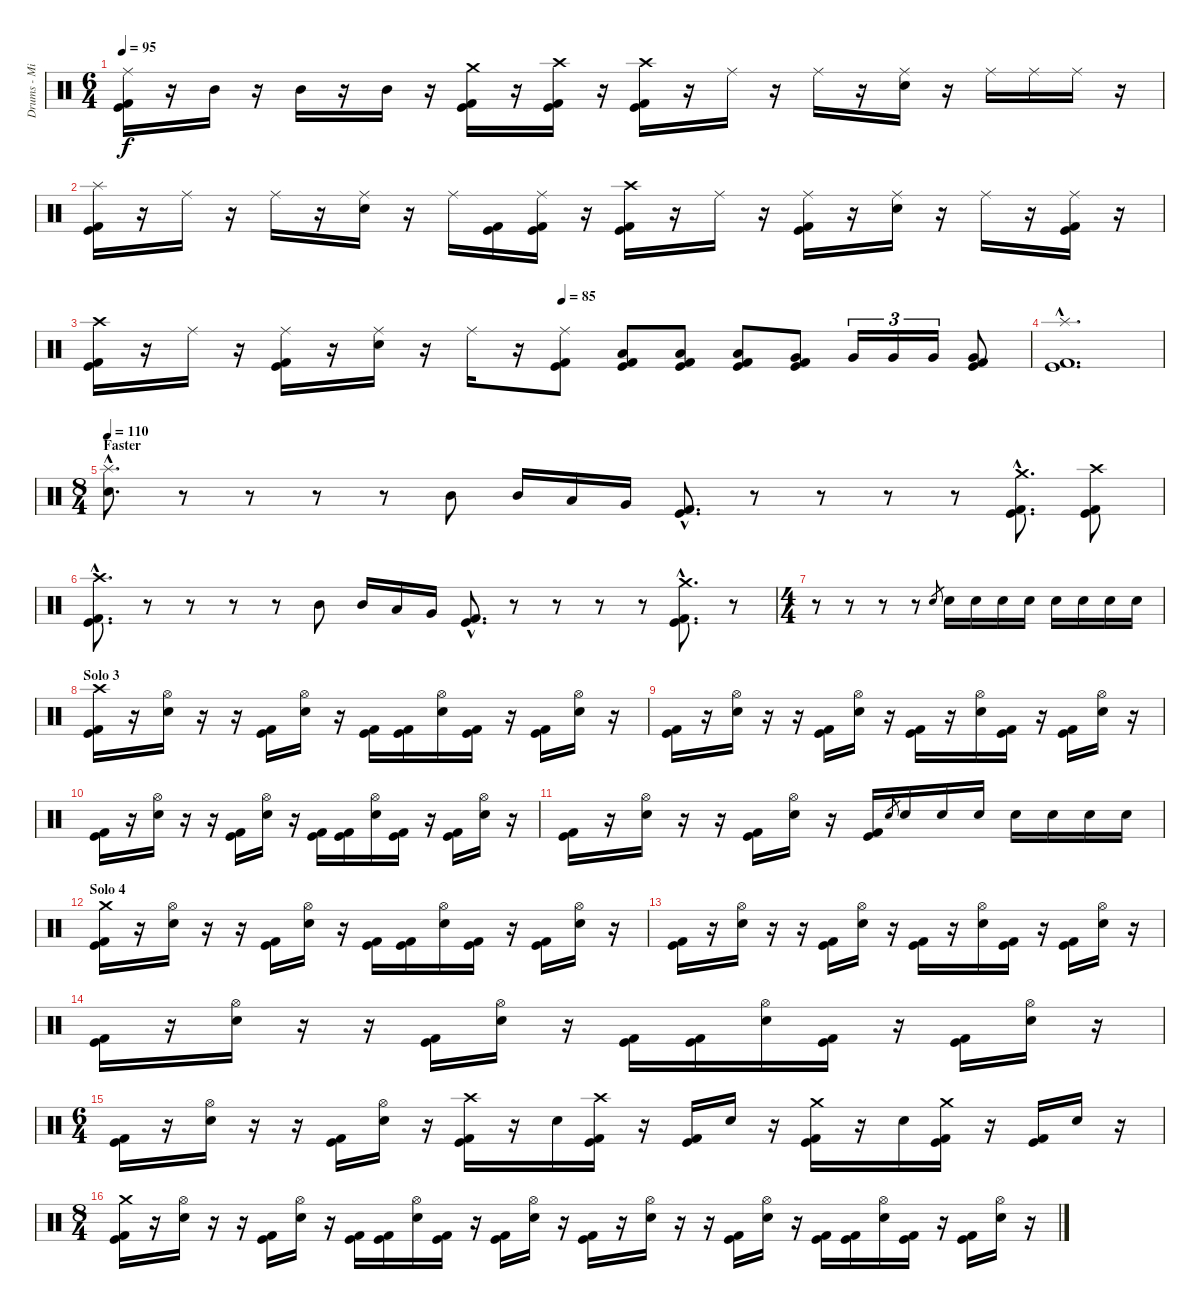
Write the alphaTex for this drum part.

\track ("Drums - Mikkey Dee" "Drums - Mi") {instrument percussion}
\staff {score}
\articulation defaults
\ts (6 4)
\tempo 95
\clef neutral
\ks c
("Ride (middle)" "Kick (hit)" "Kick (hit) 2").16{dy f} r.16 "Mid Tom (hit)".16 r.16 "Mid Tom (hit)".16 r.16 "Mid Tom (hit)".16 r.16 ("Crash medium (hit)" "Kick (hit)" "Kick (hit) 2").16 r.16 ("Crash high (hit)" "Kick (hit)" "Kick (hit) 2").16 r.16 ("Crash high (hit)" "Kick (hit)" "Kick (hit) 2").16 r.16 "Ride (middle)".16 r.16 "Ride (middle)".16 r.16 ("Ride (middle)" "Snare (hit) 2").16 r.16 "Ride (middle)".16 "Ride (middle)".16 "Ride (middle)".16 r.16 |
("Splash (hit)" "Kick (hit)" "Kick (hit) 2").16 r.16 "Ride (middle)".16 r.16 "Ride (middle)".16 r.16 ("Ride (middle)" "Snare (hit) 2").16 r.16 "Ride (middle)".16 ("Kick (hit)" "Kick (hit) 2").16 ("Ride (middle)" "Kick (hit)" "Kick (hit) 2").16 r.16 ("Crash high (hit)" "Kick (hit)" "Kick (hit) 2").16 r.16 "Ride (middle)".16 r.16 ("Ride (middle)" "Kick (hit)" "Kick (hit) 2").16 r.16 ("Ride (middle)" "Snare (hit) 2").16 r.16 "Ride (middle)".16 r.16 ("Ride (middle)" "Kick (hit)" "Kick (hit) 2").16 r.16 |
\tempo (85 0.5)
("Crash high (hit)" "Kick (hit)" "Kick (hit) 2").16 r.16 "Ride (middle)".16 r.16 ("Ride (middle)" "Kick (hit)" "Kick (hit) 2").16 r.16 ("Ride (middle)" "Snare (hit) 2").16 r.16 "Ride (middle)".16 r.16 ("Ride (middle)" "Kick (hit)" "Kick (hit) 2").8 ("Low Tom (hit)" "Kick (hit)" "Kick (hit) 2").8 ("Low Tom (hit)" "Kick (hit)" "Kick (hit) 2").8 ("Low Tom (hit)" "Kick (hit)" "Kick (hit) 2").8 ("Very Low Tom (hit)" "Kick (hit)" "Kick (hit) 2").8 "Very Low Tom (hit)".16{tu (3 2)} "Very Low Tom (hit)".16{tu (3 2)} "Very Low Tom (hit)".16{tu (3 2)} ("Very Low Tom (hit)" "Kick (hit)" "Kick (hit) 2").8 |
("Splash (hit)"{hac} "Kick (hit)"{hac} "Kick (hit) 2"{hac}).1{d} |
\ts (8 4)
\section ("" "Faster")
\tempo 110
("Splash (hit)"{hac} "Snare (hit) 2"{hac}).8{d} r.8 r.8 r.8 r.8 "Mid Tom (hit)".8 "Mid Tom (hit)".16 "Low Tom (hit)".16 "Very Low Tom (hit)".16 ("Kick (hit)"{hac} "Kick (hit) 2"{hac}).8{d} r.8 r.8 r.8 r.8 ("Crash medium (hit)"{hac} "Kick (hit)"{hac} "Kick (hit) 2"{hac}).8{d} ("Crash high (hit)" "Kick (hit)" "Kick (hit) 2").8 |
("Crash high (hit)"{hac} "Kick (hit)"{hac} "Kick (hit) 2"{hac}).8{d} r.8 r.8 r.8 r.8 "Mid Tom (hit)".8 "Mid Tom (hit)".16 "Low Tom (hit)".16 "Very Low Tom (hit)".16 ("Kick (hit)"{hac} "Kick (hit) 2"{hac}).8{d} r.8 r.8 r.8 r.8 ("Crash medium (hit)"{hac} "Kick (hit)"{hac} "Kick (hit) 2"{hac}).8{d} r.8 |
\ts (4 4)
r.8 r.8 r.8 r.8 "Snare (hit) 2".8{gr} "Snare (hit) 2".16 "Snare (hit) 2".16 "Snare (hit) 2".16 "Snare (hit) 2".16 "Snare (hit) 2".16 "Snare (hit) 2".16 "Snare (hit) 2".16 "Snare (hit) 2".16 |
\section ("" "Solo 3")
("Crash high (hit)" "Kick (hit)" "Kick (hit) 2").16 r.16 ("Hi-Hat (open)" "Snare (hit) 2").16 r.16 r.16 ("Kick (hit)" "Kick (hit) 2").16 ("Hi-Hat (open)" "Snare (hit) 2").16 r.16 ("Kick (hit)" "Kick (hit) 2").16 ("Kick (hit)" "Kick (hit) 2").16 ("Hi-Hat (open)" "Snare (hit) 2").16 ("Kick (hit)" "Kick (hit) 2").16 r.16 ("Kick (hit)" "Kick (hit) 2").16 ("Hi-Hat (open)" "Snare (hit) 2").16 r.16 |
("Kick (hit)" "Kick (hit) 2").16 r.16 ("Hi-Hat (open)" "Snare (hit) 2").16 r.16 r.16 ("Kick (hit)" "Kick (hit) 2").16 ("Hi-Hat (open)" "Snare (hit) 2").16 r.16 ("Kick (hit)" "Kick (hit) 2").16 r.16 ("Hi-Hat (open)" "Snare (hit) 2").16 ("Kick (hit)" "Kick (hit) 2").16 r.16 ("Kick (hit)" "Kick (hit) 2").16 ("Hi-Hat (open)" "Snare (hit) 2").16 r.16 |
("Kick (hit)" "Kick (hit) 2").16 r.16 ("Hi-Hat (open)" "Snare (hit) 2").16 r.16 r.16 ("Kick (hit)" "Kick (hit) 2").16 ("Hi-Hat (open)" "Snare (hit) 2").16 r.16 ("Kick (hit)" "Kick (hit) 2").16 ("Kick (hit)" "Kick (hit) 2").16 ("Hi-Hat (open)" "Snare (hit) 2").16 ("Kick (hit)" "Kick (hit) 2").16 r.16 ("Kick (hit)" "Kick (hit) 2").16 ("Hi-Hat (open)" "Snare (hit) 2").16 r.16 |
("Kick (hit)" "Kick (hit) 2").16 r.16 ("Hi-Hat (open)" "Snare (hit) 2").16 r.16 r.16 ("Kick (hit)" "Kick (hit) 2").16 ("Hi-Hat (open)" "Snare (hit) 2").16 r.16 ("Kick (hit)" "Kick (hit) 2").16 "Snare (hit) 2".8{gr} "Snare (hit) 2".16 "Snare (hit) 2".16 "Snare (hit) 2".16 "Snare (hit) 2".16 "Snare (hit) 2".16 "Snare (hit) 2".16 "Snare (hit) 2".16 |
\section ("" "Solo 4")
("Crash medium (hit)" "Kick (hit)" "Kick (hit) 2").16 r.16 ("Hi-Hat (open)" "Snare (hit) 2").16 r.16 r.16 ("Kick (hit)" "Kick (hit) 2").16 ("Hi-Hat (open)" "Snare (hit) 2").16 r.16 ("Kick (hit)" "Kick (hit) 2").16 ("Kick (hit)" "Kick (hit) 2").16 ("Hi-Hat (open)" "Snare (hit) 2").16 ("Kick (hit)" "Kick (hit) 2").16 r.16 ("Kick (hit)" "Kick (hit) 2").16 ("Hi-Hat (open)" "Snare (hit) 2").16 r.16 |
("Kick (hit)" "Kick (hit) 2").16 r.16 ("Hi-Hat (open)" "Snare (hit) 2").16 r.16 r.16 ("Kick (hit)" "Kick (hit) 2").16 ("Hi-Hat (open)" "Snare (hit) 2").16 r.16 ("Kick (hit)" "Kick (hit) 2").16 r.16 ("Hi-Hat (open)" "Snare (hit) 2").16 ("Kick (hit)" "Kick (hit) 2").16 r.16 ("Kick (hit)" "Kick (hit) 2").16 ("Hi-Hat (open)" "Snare (hit) 2").16 r.16 |
("Kick (hit)" "Kick (hit) 2").16 r.16 ("Hi-Hat (open)" "Snare (hit) 2").16 r.16 r.16 ("Kick (hit)" "Kick (hit) 2").16 ("Hi-Hat (open)" "Snare (hit) 2").16 r.16 ("Kick (hit)" "Kick (hit) 2").16 ("Kick (hit)" "Kick (hit) 2").16 ("Hi-Hat (open)" "Snare (hit) 2").16 ("Kick (hit)" "Kick (hit) 2").16 r.16 ("Kick (hit)" "Kick (hit) 2").16 ("Hi-Hat (open)" "Snare (hit) 2").16 r.16 |
\ts (6 4)
("Kick (hit)" "Kick (hit) 2").16 r.16 ("Hi-Hat (open)" "Snare (hit) 2").16 r.16 r.16 ("Kick (hit)" "Kick (hit) 2").16 ("Hi-Hat (open)" "Snare (hit) 2").16 r.16 ("Crash high (hit)" "Kick (hit)" "Kick (hit) 2").16 r.16 "Snare (hit) 2".16 ("Crash high (hit)" "Kick (hit)" "Kick (hit) 2").16 r.16 ("Kick (hit)" "Kick (hit) 2").16 "Snare (hit) 2".16 r.16 ("Crash medium (hit)" "Kick (hit)" "Kick (hit) 2").16 r.16 "Snare (hit) 2".16 ("Crash medium (hit)" "Kick (hit)" "Kick (hit) 2").16 r.16 ("Kick (hit)" "Kick (hit) 2").16 "Snare (hit) 2".16 r.16 |
\ts (8 4)
("Crash medium (hit)" "Kick (hit)" "Kick (hit) 2").16 r.16 ("Hi-Hat (open)" "Snare (hit) 2").16 r.16 r.16 ("Kick (hit)" "Kick (hit) 2").16 ("Hi-Hat (open)" "Snare (hit) 2").16 r.16 ("Kick (hit)" "Kick (hit) 2").16 ("Kick (hit)" "Kick (hit) 2").16 ("Hi-Hat (open)" "Snare (hit) 2").16 ("Kick (hit)" "Kick (hit) 2").16 r.16 ("Kick (hit)" "Kick (hit) 2").16 ("Hi-Hat (open)" "Snare (hit) 2").16 r.16 ("Kick (hit)" "Kick (hit) 2").16 r.16 ("Hi-Hat (open)" "Snare (hit) 2").16 r.16 r.16 ("Kick (hit)" "Kick (hit) 2").16 ("Hi-Hat (open)" "Snare (hit) 2").16 r.16 ("Kick (hit)" "Kick (hit) 2").16 ("Kick (hit)" "Kick (hit) 2").16 ("Hi-Hat (open)" "Snare (hit) 2").16 ("Kick (hit)" "Kick (hit) 2").16 r.16 ("Kick (hit)" "Kick (hit) 2").16 ("Hi-Hat (open)" "Snare (hit) 2").16 r.16
